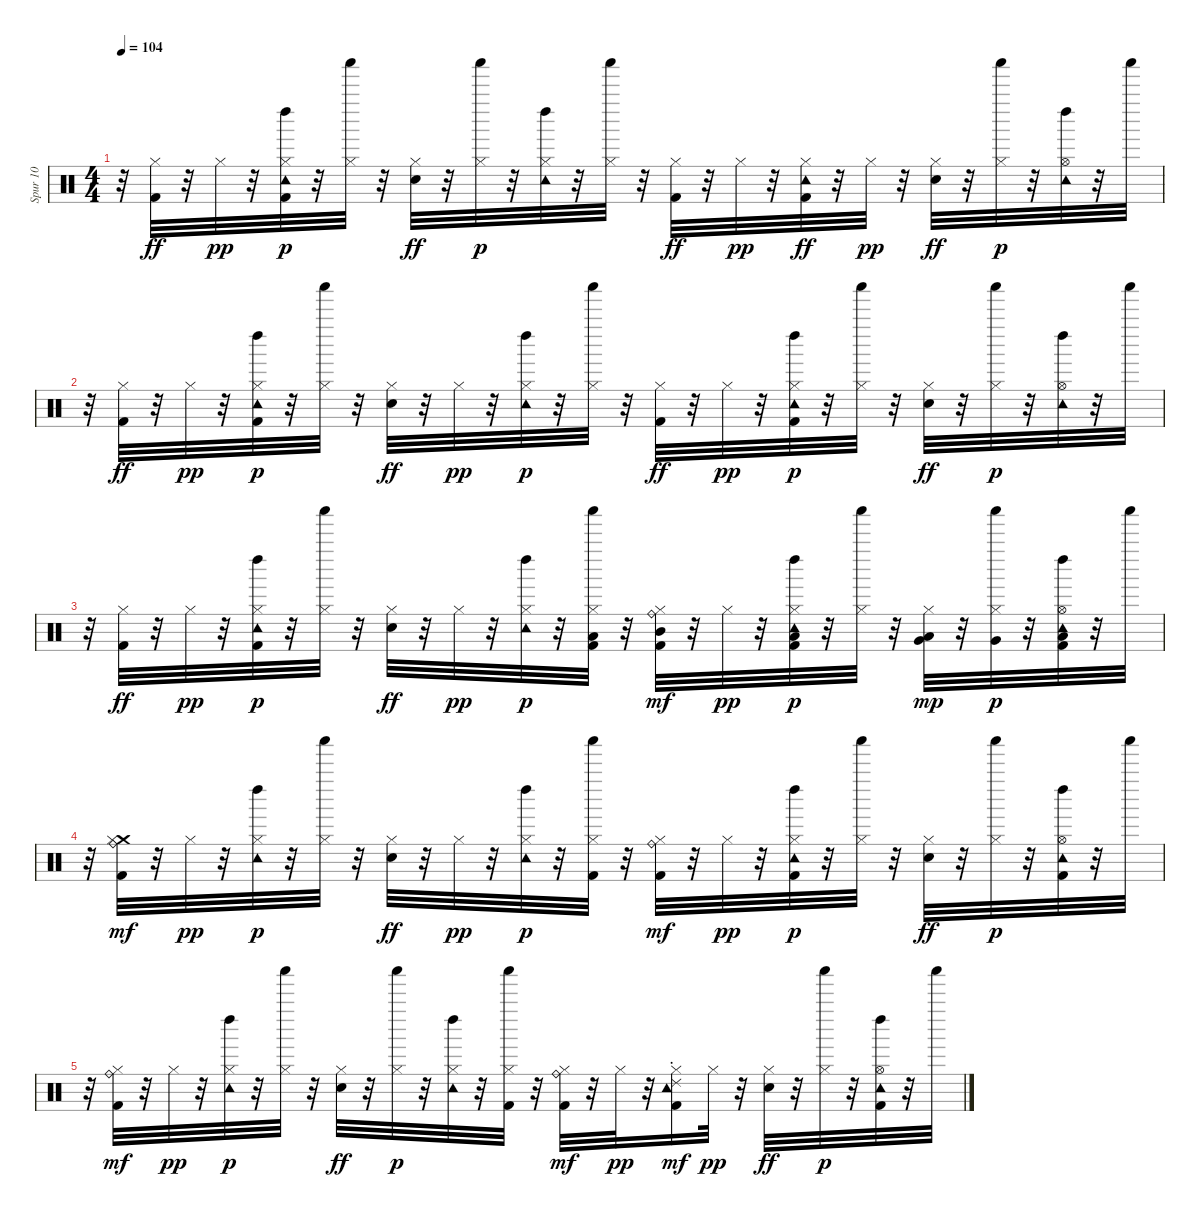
\track ("Spur 10" "Spur 10") {instrument percussion}
\staff {score}
\articulation defaults
\ts (4 4)
\tempo 104
\clef neutral
\ks c
r.32{dy p} ("Hi-Hat (closed)" "Kick (hit) 2").32{dy ff} r.32 "Hi-Hat (closed)".32{dy pp} r.32 ("Hi-Hat (closed)" "Tambourine (hit)" "Kick (hit) 2" "Left Maraca (hit)").32{dy p} r.32 ("Hi-Hat (closed)" "Shaker (hit)").32 r.32 ("Hi-Hat (closed)" "Snare (hit) 2").32{dy ff} r.32 ("Hi-Hat (closed)" "Shaker (hit)").32{dy p} r.32 ("Hi-Hat (closed)" "Tambourine (hit)" "Left Maraca (hit)").32 r.32 ("Hi-Hat (closed)" "Shaker (hit)").32 r.32 ("Hi-Hat (closed)" "Kick (hit) 2").32{dy ff} r.32 "Hi-Hat (closed)".32{dy pp} r.32 ("Hi-Hat (closed)" "Tambourine (hit)" "Kick (hit) 2").32{dy ff} r.32 "Hi-Hat (closed)".32{dy pp} r.32 ("Hi-Hat (closed)" "Snare (hit) 2").32{dy ff} r.32 ("Hi-Hat (closed)" "Shaker (hit)").32{dy p} r.32 ("Hi-Hat (open)" "Tambourine (hit)" "Left Maraca (hit)").32 r.32 "Shaker (hit)".32 |
r.32 ("Hi-Hat (closed)" "Kick (hit) 2").32{dy ff} r.32 "Hi-Hat (closed)".32{dy pp} r.32 ("Hi-Hat (closed)" "Tambourine (hit)" "Kick (hit) 2" "Left Maraca (hit)").32{dy p} r.32 ("Hi-Hat (closed)" "Shaker (hit)").32 r.32 ("Hi-Hat (closed)" "Snare (hit) 2").32{dy ff} r.32 "Hi-Hat (closed)".32{dy pp} r.32 ("Hi-Hat (closed)" "Tambourine (hit)" "Left Maraca (hit)").32{dy p} r.32 ("Hi-Hat (closed)" "Shaker (hit)").32 r.32 ("Hi-Hat (closed)" "Kick (hit) 2").32{dy ff} r.32 "Hi-Hat (closed)".32{dy pp} r.32 ("Hi-Hat (closed)" "Tambourine (hit)" "Kick (hit) 2" "Left Maraca (hit)").32{dy p} r.32 ("Hi-Hat (closed)" "Shaker (hit)").32 r.32 ("Hi-Hat (closed)" "Snare (hit) 2").32{dy ff} r.32 ("Hi-Hat (closed)" "Shaker (hit)").32{dy p} r.32 ("Hi-Hat (open)" "Tambourine (hit)" "Left Maraca (hit)").32 r.32 "Shaker (hit)".32 |
r.32 ("Hi-Hat (closed)" "Kick (hit) 2").32{dy ff} r.32 "Hi-Hat (closed)".32{dy pp} r.32 ("Hi-Hat (closed)" "Tambourine (hit)" "Kick (hit) 2" "Left Maraca (hit)").32{dy p} r.32 ("Hi-Hat (closed)" "Shaker (hit)").32 r.32 ("Hi-Hat (closed)" "Snare (hit) 2").32{dy ff} r.32 "Hi-Hat (closed)".32{dy pp} r.32 ("Hi-Hat (closed)" "Tambourine (hit)" "Left Maraca (hit)").32{dy p} r.32 ("Low Floor Tom (hit)" "Hi-Hat (closed)" "Kick (hit) 2" "Shaker (hit)").32 r.32 ("Hi-Hat (closed)" "Mid Tom (hit)" "Ride (bell)" "Kick (hit) 2").32{dy mf} r.32 "Hi-Hat (closed)".32{dy pp} r.32 ("Hi-Hat (closed)" "Low Tom (hit)" "Tambourine (hit)" "Kick (hit) 2" "Left Maraca (hit)").32{dy p} r.32 ("Hi-Hat (closed)" "Shaker (hit)").32 r.32 ("Hi-Hat (closed)" "Very Low Tom (hit)" "Low Tom (hit)").32{dy mp} r.32 ("Hi-Hat (closed)" "Very Low Tom (hit)" "Shaker (hit)").32{dy p} r.32 ("Low Floor Tom (hit)" "Hi-Hat (open)" "Tambourine (hit)" "Kick (hit) 2" "Left Maraca (hit)").32 r.32 "Shaker (hit)".32 |
r.32 ("Crash medium (hit)" "Hi-Hat (closed)" "Ride (bell)" "Kick (hit) 2").32{dy mf} r.32 "Hi-Hat (closed)".32{dy pp} r.32 ("Hi-Hat (closed)" "Tambourine (hit)" "Left Maraca (hit)").32{dy p} r.32 ("Hi-Hat (closed)" "Shaker (hit)").32 r.32 ("Hi-Hat (closed)" "Snare (hit) 2").32{dy ff} r.32 "Hi-Hat (closed)".32{dy pp} r.32 ("Hi-Hat (closed)" "Tambourine (hit)" "Left Maraca (hit)").32{dy p} r.32 ("Hi-Hat (closed)" "Kick (hit) 2" "Shaker (hit)").32 r.32 ("Hi-Hat (closed)" "Ride (bell)" "Kick (hit) 2").32{dy mf} r.32 "Hi-Hat (closed)".32{dy pp} r.32 ("Hi-Hat (closed)" "Tambourine (hit)" "Kick (hit) 2" "Left Maraca (hit)").32{dy p} r.32 ("Hi-Hat (closed)" "Shaker (hit)").32 r.32 ("Hi-Hat (closed)" "Snare (hit) 2").32{dy ff} r.32 ("Hi-Hat (closed)" "Shaker (hit)").32{dy p} r.32 ("Hi-Hat (open)" "Tambourine (hit)" "Kick (hit) 2" "Left Maraca (hit)").32 r.32 "Shaker (hit)".32 |
r.32 ("Hi-Hat (closed)" "Ride (bell)" "Kick (hit) 2").32{dy mf} r.32 "Hi-Hat (closed)".32{dy pp} r.32 ("Hi-Hat (closed)" "Tambourine (hit)" "Left Maraca (hit)").32{dy p} r.32 ("Hi-Hat (closed)" "Shaker (hit)").32 r.32 ("Hi-Hat (closed)" "Snare (hit) 2").32{dy ff} r.32 ("Hi-Hat (closed)" "Shaker (hit)").32{dy p} r.32 ("Hi-Hat (closed)" "Tambourine (hit)" "Left Maraca (hit)").32 r.32 ("Hi-Hat (closed)" "Kick (hit) 2" "Shaker (hit)").32 r.32 ("Hi-Hat (closed)" "Ride (bell)" "Kick (hit) 2").32{dy mf} r.32 "Hi-Hat (closed)".32{dy pp} r.32 ("Ride (choke) 2" "Hi-Hat (closed)" "Tambourine (hit)" "Kick (hit) 2").16{dy mf} "Hi-Hat (closed)".32{dy pp} r.32 ("Hi-Hat (closed)" "Snare (hit) 2").32{dy ff} r.32 ("Hi-Hat (closed)" "Shaker (hit)").32{dy p} r.32 ("Hi-Hat (open)" "Tambourine (hit)" "Kick (hit) 2" "Left Maraca (hit)").32 r.32 "Shaker (hit)".32
